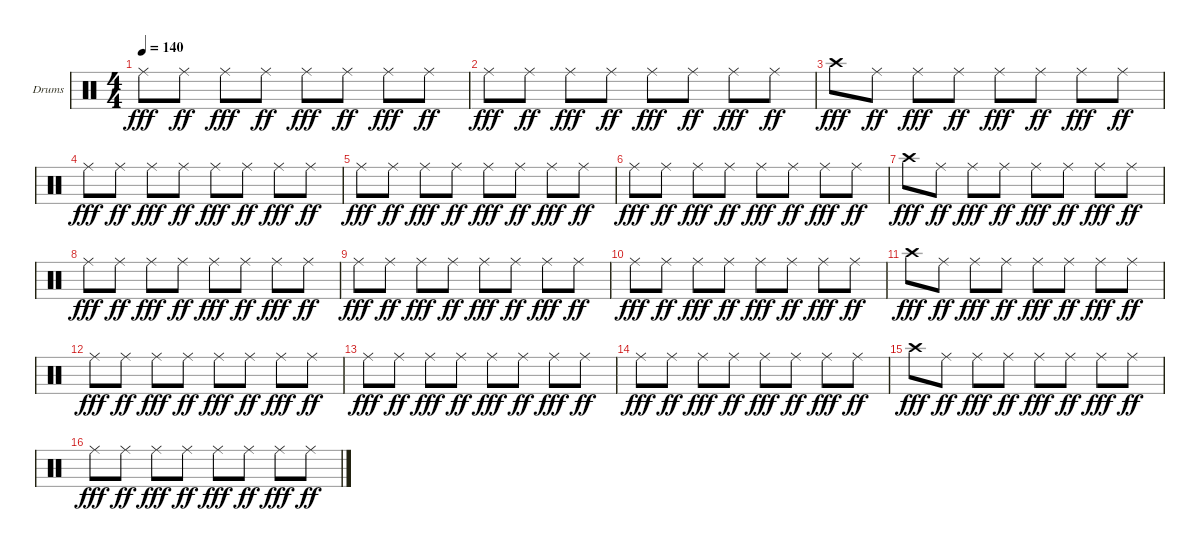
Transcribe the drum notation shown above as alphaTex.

\defaultSystemsLayout 4
\bracketExtendMode groupsimilarinstruments
\firstSystemTrackNameOrientation horizontal
\otherSystemsTrackNameOrientation horizontal
\track ("Helders" "Drums") {instrument percussion}
\staff {score}
\articulation defaults
\ts (4 4)
\tempo 140
\clef neutral
\ks c "Ride (middle)".8{dy fff} "Ride (middle)".8{dy ff} "Ride (middle)".8{dy fff} "Ride (middle)".8{dy ff} "Ride (middle)".8{dy fff} "Ride (middle)".8{dy ff} "Ride (middle)".8{dy fff} "Ride (middle)".8{dy ff}
|
"Ride (middle)".8{dy fff} "Ride (middle)".8{dy ff} "Ride (middle)".8{dy fff} "Ride (middle)".8{dy ff} "Ride (middle)".8{dy fff} "Ride (middle)".8{dy ff} "Ride (middle)".8{dy fff} "Ride (middle)".8{dy ff} |
"Crash high (hit)".8{dy fff} "Ride (middle)".8{dy ff} "Ride (middle)".8{dy fff} "Ride (middle)".8{dy ff} "Ride (middle)".8{dy fff} "Ride (middle)".8{dy ff} "Ride (middle)".8{dy fff} "Ride (middle)".8{dy ff} |
"Ride (middle)".8{dy fff} "Ride (middle)".8{dy ff} "Ride (middle)".8{dy fff} "Ride (middle)".8{dy ff} "Ride (middle)".8{dy fff} "Ride (middle)".8{dy ff} "Ride (middle)".8{dy fff} "Ride (middle)".8{dy ff} |
"Ride (middle)".8{dy fff} "Ride (middle)".8{dy ff} "Ride (middle)".8{dy fff} "Ride (middle)".8{dy ff} "Ride (middle)".8{dy fff} "Ride (middle)".8{dy ff} "Ride (middle)".8{dy fff} "Ride (middle)".8{dy ff} |
"Ride (middle)".8{dy fff} "Ride (middle)".8{dy ff} "Ride (middle)".8{dy fff} "Ride (middle)".8{dy ff} "Ride (middle)".8{dy fff} "Ride (middle)".8{dy ff} "Ride (middle)".8{dy fff} "Ride (middle)".8{dy ff} |
"Crash high (hit)".8{dy fff} "Ride (middle)".8{dy ff} "Ride (middle)".8{dy fff} "Ride (middle)".8{dy ff} "Ride (middle)".8{dy fff} "Ride (middle)".8{dy ff} "Ride (middle)".8{dy fff} "Ride (middle)".8{dy ff} |
"Ride (middle)".8{dy fff} "Ride (middle)".8{dy ff} "Ride (middle)".8{dy fff} "Ride (middle)".8{dy ff} "Ride (middle)".8{dy fff} "Ride (middle)".8{dy ff} "Ride (middle)".8{dy fff} "Ride (middle)".8{dy ff} |
"Ride (middle)".8{dy fff} "Ride (middle)".8{dy ff} "Ride (middle)".8{dy fff} "Ride (middle)".8{dy ff} "Ride (middle)".8{dy fff} "Ride (middle)".8{dy ff} "Ride (middle)".8{dy fff} "Ride (middle)".8{dy ff} |
"Ride (middle)".8{dy fff} "Ride (middle)".8{dy ff} "Ride (middle)".8{dy fff} "Ride (middle)".8{dy ff} "Ride (middle)".8{dy fff} "Ride (middle)".8{dy ff} "Ride (middle)".8{dy fff} "Ride (middle)".8{dy ff} |
"Crash high (hit)".8{dy fff} "Ride (middle)".8{dy ff} "Ride (middle)".8{dy fff} "Ride (middle)".8{dy ff} "Ride (middle)".8{dy fff} "Ride (middle)".8{dy ff} "Ride (middle)".8{dy fff} "Ride (middle)".8{dy ff} |
"Ride (middle)".8{dy fff} "Ride (middle)".8{dy ff} "Ride (middle)".8{dy fff} "Ride (middle)".8{dy ff} "Ride (middle)".8{dy fff} "Ride (middle)".8{dy ff} "Ride (middle)".8{dy fff} "Ride (middle)".8{dy ff} |
"Ride (middle)".8{dy fff} "Ride (middle)".8{dy ff} "Ride (middle)".8{dy fff} "Ride (middle)".8{dy ff} "Ride (middle)".8{dy fff} "Ride (middle)".8{dy ff} "Ride (middle)".8{dy fff} "Ride (middle)".8{dy ff} |
"Ride (middle)".8{dy fff} "Ride (middle)".8{dy ff} "Ride (middle)".8{dy fff} "Ride (middle)".8{dy ff} "Ride (middle)".8{dy fff} "Ride (middle)".8{dy ff} "Ride (middle)".8{dy fff} "Ride (middle)".8{dy ff} |
"Crash high (hit)".8{dy fff} "Ride (middle)".8{dy ff} "Ride (middle)".8{dy fff} "Ride (middle)".8{dy ff} "Ride (middle)".8{dy fff} "Ride (middle)".8{dy ff} "Ride (middle)".8{dy fff} "Ride (middle)".8{dy ff} |
"Ride (middle)".8{dy fff} "Ride (middle)".8{dy ff} "Ride (middle)".8{dy fff} "Ride (middle)".8{dy ff} "Ride (middle)".8{dy fff} "Ride (middle)".8{dy ff} "Ride (middle)".8{dy fff} "Ride (middle)".8{dy ff}
